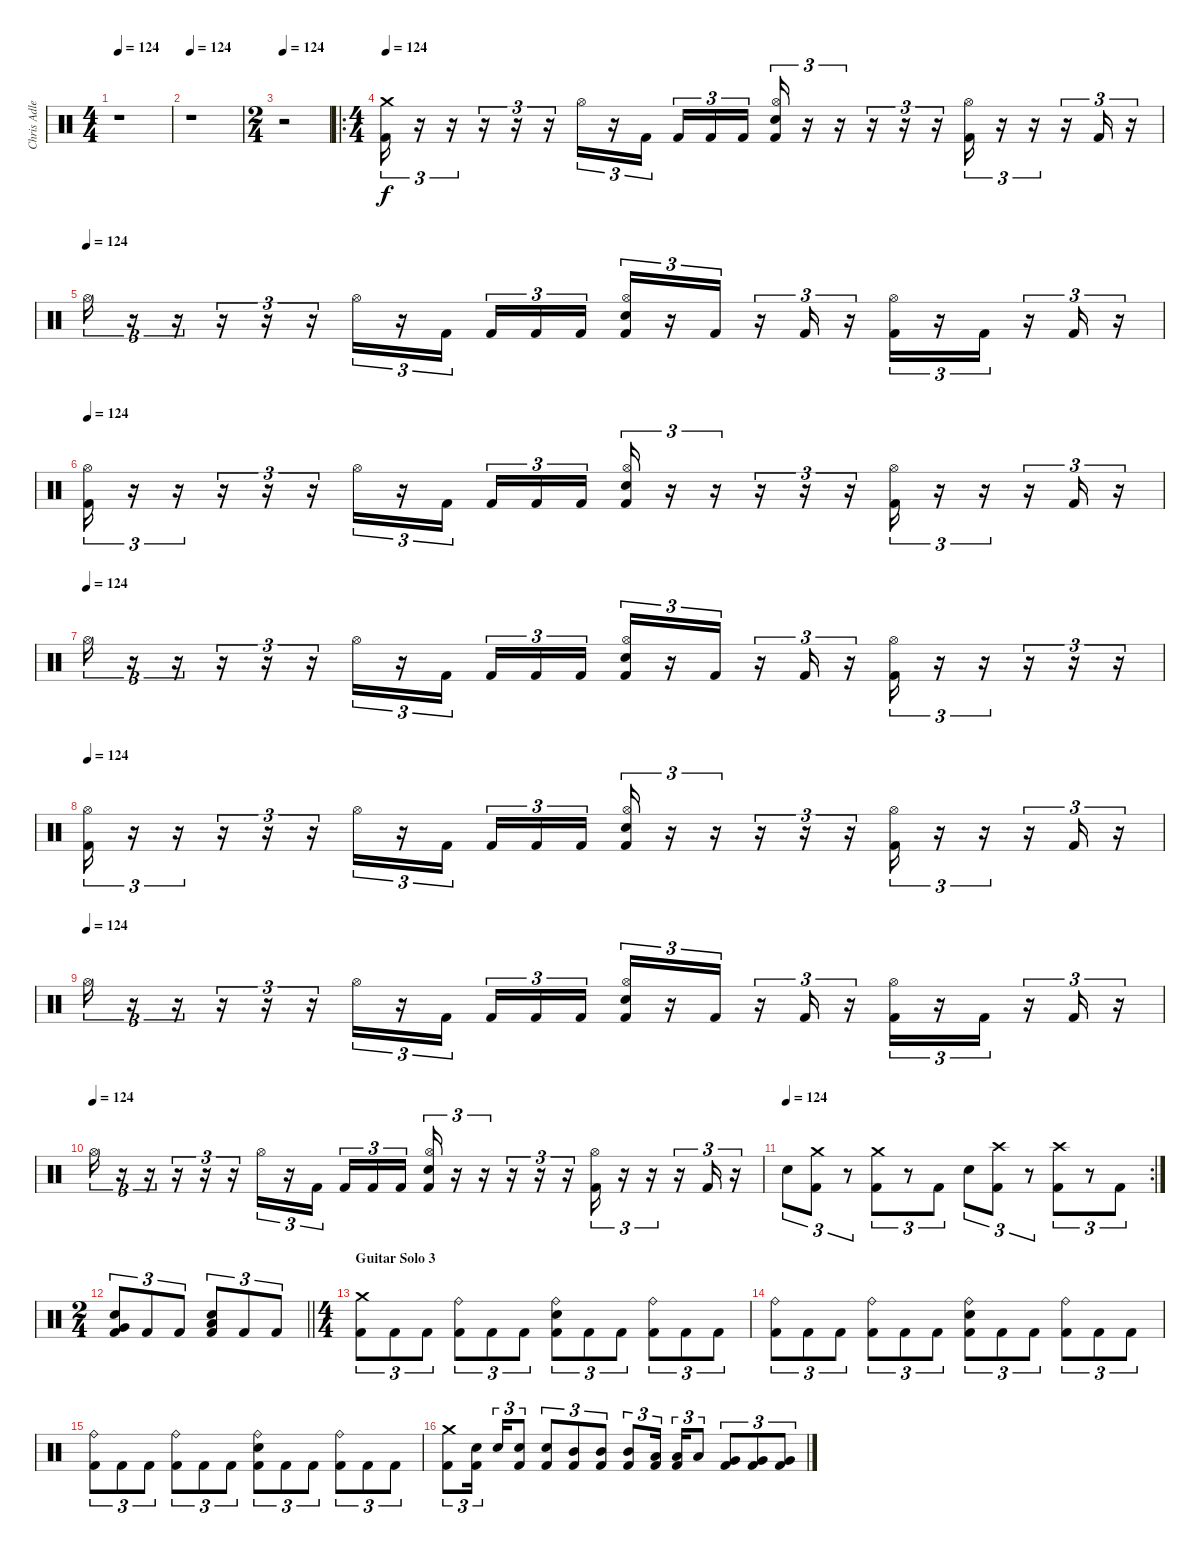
\track ("Chris Adler" "Chris Adle") {instrument percussion}
\staff {score}
\articulation defaults
\ts (4 4)
\tempo 124
\clef neutral
\ks c
r.1{dy f} |
\tempo 124
r.1 |
\ts (2 4)
\tempo 124
r.2 |
\ro
\ts (4 4)
\tempo 124
("Crash medium (hit)" "Kick (hit) 2").16{tu (3 2)} r.16{tu (3 2)} r.16{tu (3 2)} r.16{tu (3 2)} r.16{tu (3 2)} r.16{tu (3 2)} "Hi-Hat (open)".16{tu (3 2)} r.16{tu (3 2)} "Kick (hit) 2".16{tu (3 2) beam splitsecondary} "Kick (hit) 2".16{tu (3 2)} "Kick (hit) 2".16{tu (3 2)} "Kick (hit) 2".16{tu (3 2)} ("Hi-Hat (open)" "Electric Snare (hit)" "Kick (hit) 2").16{tu (3 2)} r.16{tu (3 2)} r.16{tu (3 2)} r.16{tu (3 2)} r.16{tu (3 2)} r.16{tu (3 2)} ("Hi-Hat (open)" "Kick (hit) 2").16{tu (3 2)} r.16{tu (3 2)} r.16{tu (3 2)} r.16{tu (3 2)} "Kick (hit) 2".16{tu (3 2)} r.16{tu (3 2)} |
\tempo (124)
"Hi-Hat (open)".16{tu (3 2)} r.16{tu (3 2)} r.16{tu (3 2)} r.16{tu (3 2)} r.16{tu (3 2)} r.16{tu (3 2)} "Hi-Hat (open)".16{tu (3 2)} r.16{tu (3 2)} "Kick (hit) 2".16{tu (3 2) beam splitsecondary} "Kick (hit) 2".16{tu (3 2)} "Kick (hit) 2".16{tu (3 2)} "Kick (hit) 2".16{tu (3 2)} ("Hi-Hat (open)" "Electric Snare (hit)" "Kick (hit) 2").16{tu (3 2)} r.16{tu (3 2)} "Kick (hit) 2".16{tu (3 2)} r.16{tu (3 2)} "Kick (hit) 2".16{tu (3 2)} r.16{tu (3 2)} ("Hi-Hat (open)" "Kick (hit) 2").16{tu (3 2)} r.16{tu (3 2)} "Kick (hit) 2".16{tu (3 2)} r.16{tu (3 2)} "Kick (hit) 2".16{tu (3 2)} r.16{tu (3 2)} |
\tempo 124
("Hi-Hat (open)" "Kick (hit) 2").16{tu (3 2)} r.16{tu (3 2)} r.16{tu (3 2)} r.16{tu (3 2)} r.16{tu (3 2)} r.16{tu (3 2)} "Hi-Hat (open)".16{tu (3 2)} r.16{tu (3 2)} "Kick (hit) 2".16{tu (3 2) beam splitsecondary} "Kick (hit) 2".16{tu (3 2)} "Kick (hit) 2".16{tu (3 2)} "Kick (hit) 2".16{tu (3 2)} ("Hi-Hat (open)" "Electric Snare (hit)" "Kick (hit) 2").16{tu (3 2)} r.16{tu (3 2)} r.16{tu (3 2)} r.16{tu (3 2)} r.16{tu (3 2)} r.16{tu (3 2)} ("Hi-Hat (open)" "Kick (hit) 2").16{tu (3 2)} r.16{tu (3 2)} r.16{tu (3 2)} r.16{tu (3 2)} "Kick (hit) 2".16{tu (3 2)} r.16{tu (3 2)} |
\tempo (124)
"Hi-Hat (open)".16{tu (3 2)} r.16{tu (3 2)} r.16{tu (3 2)} r.16{tu (3 2)} r.16{tu (3 2)} r.16{tu (3 2)} "Hi-Hat (open)".16{tu (3 2)} r.16{tu (3 2)} "Kick (hit) 2".16{tu (3 2) beam splitsecondary} "Kick (hit) 2".16{tu (3 2)} "Kick (hit) 2".16{tu (3 2)} "Kick (hit) 2".16{tu (3 2)} ("Hi-Hat (open)" "Electric Snare (hit)" "Kick (hit) 2").16{tu (3 2)} r.16{tu (3 2)} "Kick (hit) 2".16{tu (3 2)} r.16{tu (3 2)} "Kick (hit) 2".16{tu (3 2)} r.16{tu (3 2)} ("Hi-Hat (open)" "Kick (hit) 2").16{tu (3 2)} r.16{tu (3 2)} r.16{tu (3 2)} r.16{tu (3 2)} r.16{tu (3 2)} r.16{tu (3 2)} |
\tempo 124
("Hi-Hat (open)" "Kick (hit) 2").16{tu (3 2)} r.16{tu (3 2)} r.16{tu (3 2)} r.16{tu (3 2)} r.16{tu (3 2)} r.16{tu (3 2)} "Hi-Hat (open)".16{tu (3 2)} r.16{tu (3 2)} "Kick (hit) 2".16{tu (3 2) beam splitsecondary} "Kick (hit) 2".16{tu (3 2)} "Kick (hit) 2".16{tu (3 2)} "Kick (hit) 2".16{tu (3 2)} ("Hi-Hat (open)" "Electric Snare (hit)" "Kick (hit) 2").16{tu (3 2)} r.16{tu (3 2)} r.16{tu (3 2)} r.16{tu (3 2)} r.16{tu (3 2)} r.16{tu (3 2)} ("Hi-Hat (open)" "Kick (hit) 2").16{tu (3 2)} r.16{tu (3 2)} r.16{tu (3 2)} r.16{tu (3 2)} "Kick (hit) 2".16{tu (3 2)} r.16{tu (3 2)} |
\tempo (124)
"Hi-Hat (open)".16{tu (3 2)} r.16{tu (3 2)} r.16{tu (3 2)} r.16{tu (3 2)} r.16{tu (3 2)} r.16{tu (3 2)} "Hi-Hat (open)".16{tu (3 2)} r.16{tu (3 2)} "Kick (hit) 2".16{tu (3 2) beam splitsecondary} "Kick (hit) 2".16{tu (3 2)} "Kick (hit) 2".16{tu (3 2)} "Kick (hit) 2".16{tu (3 2)} ("Hi-Hat (open)" "Electric Snare (hit)" "Kick (hit) 2").16{tu (3 2)} r.16{tu (3 2)} "Kick (hit) 2".16{tu (3 2)} r.16{tu (3 2)} "Kick (hit) 2".16{tu (3 2)} r.16{tu (3 2)} ("Hi-Hat (open)" "Kick (hit) 2").16{tu (3 2)} r.16{tu (3 2)} "Kick (hit) 2".16{tu (3 2)} r.16{tu (3 2)} "Kick (hit) 2".16{tu (3 2)} r.16{tu (3 2)} |
\tempo (124)
"Hi-Hat (open)".16{tu (3 2)} r.16{tu (3 2)} r.16{tu (3 2)} r.16{tu (3 2)} r.16{tu (3 2)} r.16{tu (3 2)} "Hi-Hat (open)".16{tu (3 2)} r.16{tu (3 2)} "Kick (hit) 2".16{tu (3 2) beam splitsecondary} "Kick (hit) 2".16{tu (3 2)} "Kick (hit) 2".16{tu (3 2)} "Kick (hit) 2".16{tu (3 2)} ("Hi-Hat (open)" "Electric Snare (hit)" "Kick (hit) 2").16{tu (3 2)} r.16{tu (3 2)} r.16{tu (3 2)} r.16{tu (3 2)} r.16{tu (3 2)} r.16{tu (3 2)} ("Hi-Hat (open)" "Kick (hit) 2").16{tu (3 2)} r.16{tu (3 2)} r.16{tu (3 2)} r.16{tu (3 2)} "Kick (hit) 2".16{tu (3 2)} r.16{tu (3 2)} |
\rc 2
\tempo (124)
"Electric Snare (hit)".8{tu (3 2)} ("Crash medium (hit)" "Kick (hit) 2").8{tu (3 2)} r.8{tu (3 2)} ("Crash medium (hit)" "Kick (hit) 2").8{tu (3 2)} r.8{tu (3 2)} "Kick (hit) 2".8{tu (3 2)} "Electric Snare (hit)".8{tu (3 2)} ("Crash high (hit)" "Kick (hit) 2").8{tu (3 2)} r.8{tu (3 2)} ("Crash high (hit)" "Kick (hit) 2").8{tu (3 2)} r.8{tu (3 2)} "Kick (hit) 2".8{tu (3 2)} |
\ts (2 4)
\barLineRight lightlight
("Electric Snare (hit)" "Very Low Tom (hit)" "Kick (hit) 2").8{tu (3 2)} "Kick (hit) 2".8{tu (3 2)} "Kick (hit) 2".8{tu (3 2)} ("Low Tom (hit)" "Electric Snare (hit)" "Kick (hit) 2").8{tu (3 2)} "Kick (hit) 2".8{tu (3 2)} "Kick (hit) 2".8{tu (3 2)} |
\ts (4 4)
\section ("" "Guitar Solo 3")
("Crash medium (hit)" "Kick (hit) 2").8{tu (3 2)} "Kick (hit) 2".8{tu (3 2)} "Kick (hit) 2".8{tu (3 2)} ("Ride (bell)" "Kick (hit) 2").8{tu (3 2)} "Kick (hit) 2".8{tu (3 2)} "Kick (hit) 2".8{tu (3 2)} ("Ride (bell)" "Electric Snare (hit)" "Kick (hit) 2").8{tu (3 2)} "Kick (hit) 2".8{tu (3 2)} "Kick (hit) 2".8{tu (3 2)} ("Ride (bell)" "Kick (hit) 2").8{tu (3 2)} "Kick (hit) 2".8{tu (3 2)} "Kick (hit) 2".8{tu (3 2)} |
("Ride (bell)" "Kick (hit) 2").8{tu (3 2)} "Kick (hit) 2".8{tu (3 2)} "Kick (hit) 2".8{tu (3 2)} ("Ride (bell)" "Kick (hit) 2").8{tu (3 2)} "Kick (hit) 2".8{tu (3 2)} "Kick (hit) 2".8{tu (3 2)} ("Ride (bell)" "Electric Snare (hit)" "Kick (hit) 2").8{tu (3 2)} "Kick (hit) 2".8{tu (3 2)} "Kick (hit) 2".8{tu (3 2)} ("Ride (bell)" "Kick (hit) 2").8{tu (3 2)} "Kick (hit) 2".8{tu (3 2)} "Kick (hit) 2".8{tu (3 2)} |
("Ride (bell)" "Kick (hit) 2").8{tu (3 2)} "Kick (hit) 2".8{tu (3 2)} "Kick (hit) 2".8{tu (3 2)} ("Ride (bell)" "Kick (hit) 2").8{tu (3 2)} "Kick (hit) 2".8{tu (3 2)} "Kick (hit) 2".8{tu (3 2)} ("Ride (bell)" "Electric Snare (hit)" "Kick (hit) 2").8{tu (3 2)} "Kick (hit) 2".8{tu (3 2)} "Kick (hit) 2".8{tu (3 2)} ("Ride (bell)" "Kick (hit) 2").8{tu (3 2)} "Kick (hit) 2".8{tu (3 2)} "Kick (hit) 2".8{tu (3 2)} |
("Crash medium (hit)" "Kick (hit) 2").8{tu (3 2)} ("Electric Snare (hit)" "Kick (hit) 2").16{tu (3 2) beam splitsecondary} "Electric Snare (hit)".16{tu (3 2)} ("Electric Snare (hit)" "Kick (hit) 2").8{tu (3 2)} ("Electric Snare (hit)" "Kick (hit) 2").8{tu (3 2)} ("Mid Tom (hit)" "Kick (hit) 2").8{tu (3 2)} ("Mid Tom (hit)" "Kick (hit) 2").8{tu (3 2)} ("Mid Tom (hit)" "Kick (hit) 2").8{tu (3 2)} ("Low Tom (hit)" "Kick (hit) 2").16{tu (3 2) beam splitsecondary} ("Low Tom (hit)" "Kick (hit) 2").16{tu (3 2)} "Low Tom (hit)".8{tu (3 2)} ("Very Low Tom (hit)" "Kick (hit) 2").8{tu (3 2)} ("Very Low Tom (hit)" "Kick (hit) 2").8{tu (3 2)} ("Very Low Tom (hit)" "Kick (hit) 2").8{tu (3 2)}
